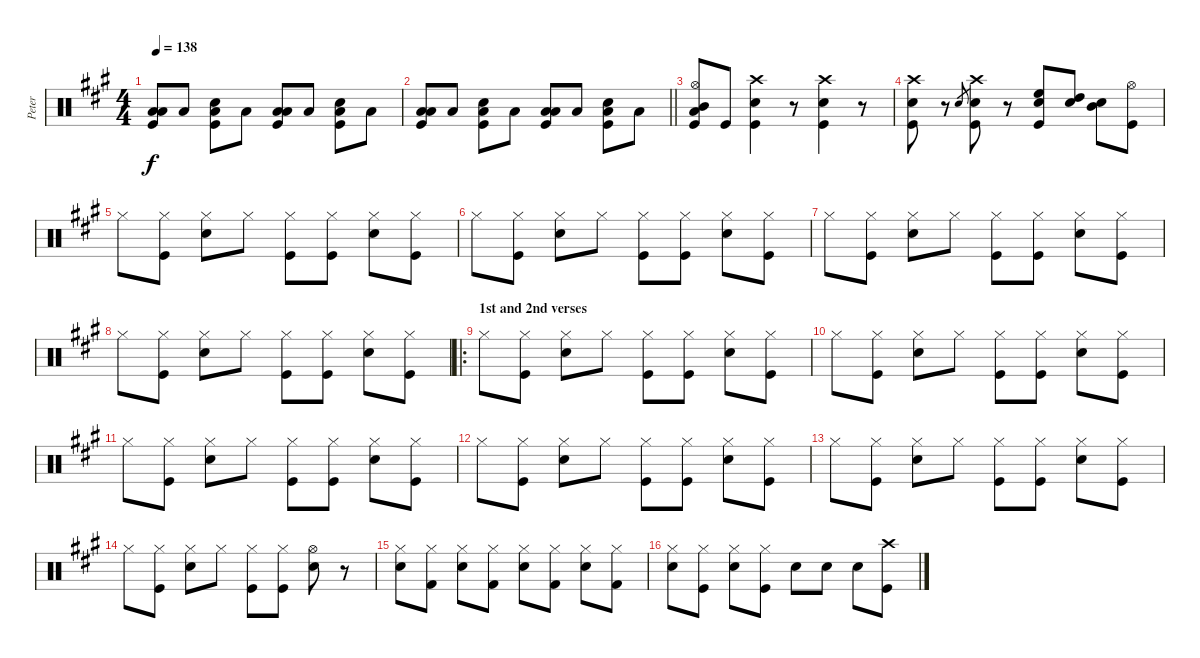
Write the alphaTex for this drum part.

\track ("Peter" "Peter") {instrument percussion}
\staff {score}
\articulation defaults
\ts (4 4)
\tempo 138
\clef neutral
\ks a
("Low Tom (hit)" "Low Floor Tom (hit)" "Kick (hit)").8{dy f} "Low Floor Tom (hit)".8 ("Snare (hit) 2" "Low Floor Tom (hit)" "Kick (hit)").8 "Low Floor Tom (hit)".8 ("Low Tom (hit)" "Low Floor Tom (hit)" "Kick (hit)").8 "Low Floor Tom (hit)".8 ("Snare (hit) 2" "Low Floor Tom (hit)" "Kick (hit)").8 "Low Floor Tom (hit)".8 |
\barLineRight lightlight
("Low Tom (hit)" "Low Floor Tom (hit)" "Kick (hit)").8 "Low Floor Tom (hit)".8 ("Snare (hit) 2" "Low Floor Tom (hit)" "Kick (hit)").8 "Low Floor Tom (hit)".8 ("Low Tom (hit)" "Low Floor Tom (hit)" "Kick (hit)").8 "Low Floor Tom (hit)".8 ("Snare (hit) 2" "Low Floor Tom (hit)" "Kick (hit)").8 "Low Floor Tom (hit)".8 |
("Hi-Hat (open)" "Mid Tom (hit)" "Low Floor Tom (hit)" "Kick (hit)").8 "Kick (hit)".8 ("Crash high (hit)" "Snare (hit) 2" "Kick (hit)").4 r.8 ("Crash high (hit)" "Snare (hit) 2" "Kick (hit)").4 r.8 |
("Crash high (hit)" "Snare (hit) 2" "Kick (hit)").8 r.8 "Snare (hit) 2".8{gr} ("Crash high (hit)" "Snare (hit) 2" "Kick (hit)").8 r.8 ("High Floor Tom (hit)" "Snare (hit) 2" "Kick (hit)").8 ("High Tom (hit)" "Snare (hit) 2").8 ("Mid Tom (hit)" "Snare (hit) 2").8 ("Hi-Hat (open)" "Kick (hit)").8 |
"Hi-Hat (closed)".8 ("Hi-Hat (closed)" "Kick (hit)").8 ("Hi-Hat (closed)" "Snare (hit) 2").8 "Hi-Hat (closed)".8 ("Hi-Hat (closed)" "Kick (hit)").8 ("Hi-Hat (closed)" "Kick (hit)").8 ("Hi-Hat (closed)" "Snare (hit) 2").8 ("Hi-Hat (closed)" "Kick (hit)").8 |
"Hi-Hat (closed)".8 ("Hi-Hat (closed)" "Kick (hit)").8 ("Hi-Hat (closed)" "Snare (hit) 2").8 "Hi-Hat (closed)".8 ("Hi-Hat (closed)" "Kick (hit)").8 ("Hi-Hat (closed)" "Kick (hit)").8 ("Hi-Hat (closed)" "Snare (hit) 2").8 ("Hi-Hat (closed)" "Kick (hit)").8 |
"Hi-Hat (closed)".8 ("Hi-Hat (closed)" "Kick (hit)").8 ("Hi-Hat (closed)" "Snare (hit) 2").8 "Hi-Hat (closed)".8 ("Hi-Hat (closed)" "Kick (hit)").8 ("Hi-Hat (closed)" "Kick (hit)").8 ("Hi-Hat (closed)" "Snare (hit) 2").8 ("Hi-Hat (closed)" "Kick (hit)").8 |
"Hi-Hat (closed)".8 ("Hi-Hat (closed)" "Kick (hit)").8 ("Hi-Hat (closed)" "Snare (hit) 2").8 "Hi-Hat (closed)".8 ("Hi-Hat (closed)" "Kick (hit)").8 ("Hi-Hat (closed)" "Kick (hit)").8 ("Hi-Hat (closed)" "Snare (hit) 2").8 ("Hi-Hat (closed)" "Kick (hit)").8 |
\ro
\section ("" "1st and 2nd verses")
"Hi-Hat (closed)".8 ("Hi-Hat (closed)" "Kick (hit)").8 ("Hi-Hat (closed)" "Snare (hit) 2").8 "Hi-Hat (closed)".8 ("Hi-Hat (closed)" "Kick (hit)").8 ("Hi-Hat (closed)" "Kick (hit)").8 ("Hi-Hat (closed)" "Snare (hit) 2").8 ("Hi-Hat (closed)" "Kick (hit)").8 |
"Hi-Hat (closed)".8 ("Hi-Hat (closed)" "Kick (hit)").8 ("Hi-Hat (closed)" "Snare (hit) 2").8 "Hi-Hat (closed)".8 ("Hi-Hat (closed)" "Kick (hit)").8 ("Hi-Hat (closed)" "Kick (hit)").8 ("Hi-Hat (closed)" "Snare (hit) 2").8 ("Hi-Hat (closed)" "Kick (hit)").8 |
"Hi-Hat (closed)".8 ("Hi-Hat (closed)" "Kick (hit)").8 ("Hi-Hat (closed)" "Snare (hit) 2").8 "Hi-Hat (closed)".8 ("Hi-Hat (closed)" "Kick (hit)").8 ("Hi-Hat (closed)" "Kick (hit)").8 ("Hi-Hat (closed)" "Snare (hit) 2").8 ("Hi-Hat (closed)" "Kick (hit)").8 |
"Hi-Hat (closed)".8 ("Hi-Hat (closed)" "Kick (hit)").8 ("Hi-Hat (closed)" "Snare (hit) 2").8 "Hi-Hat (closed)".8 ("Hi-Hat (closed)" "Kick (hit)").8 ("Hi-Hat (closed)" "Kick (hit)").8 ("Hi-Hat (closed)" "Snare (hit) 2").8 ("Hi-Hat (closed)" "Kick (hit)").8 |
"Hi-Hat (closed)".8 ("Hi-Hat (closed)" "Kick (hit)").8 ("Hi-Hat (closed)" "Snare (hit) 2").8 "Hi-Hat (closed)".8 ("Hi-Hat (closed)" "Kick (hit)").8 ("Hi-Hat (closed)" "Kick (hit)").8 ("Hi-Hat (closed)" "Snare (hit) 2").8 ("Hi-Hat (closed)" "Kick (hit)").8 |
"Hi-Hat (closed)".8 ("Hi-Hat (closed)" "Kick (hit)").8 ("Hi-Hat (closed)" "Snare (hit) 2").8 "Hi-Hat (closed)".8 ("Hi-Hat (closed)" "Kick (hit)").8 ("Hi-Hat (closed)" "Kick (hit)").8 ("Hi-Hat (open)" "Snare (hit) 2").8 r.8 |
("Hi-Hat (closed)" "Snare (hit) 2").8 ("Hi-Hat (closed)" "Kick (hit) 2").8 ("Hi-Hat (closed)" "Snare (hit) 2").8 ("Hi-Hat (closed)" "Kick (hit) 2").8 ("Hi-Hat (closed)" "Snare (hit) 2").8 ("Hi-Hat (closed)" "Kick (hit) 2").8 ("Hi-Hat (closed)" "Snare (hit) 2").8 ("Hi-Hat (closed)" "Kick (hit) 2").8 |
("Hi-Hat (closed)" "Snare (hit) 2").8 ("Hi-Hat (closed)" "Kick (hit)").8 ("Hi-Hat (closed)" "Snare (hit) 2").8 ("Hi-Hat (closed)" "Kick (hit)").8 "Snare (hit) 2".8 "Snare (hit) 2".8 "Snare (hit) 2".8 ("Crash high (hit)" "Kick (hit)").8
